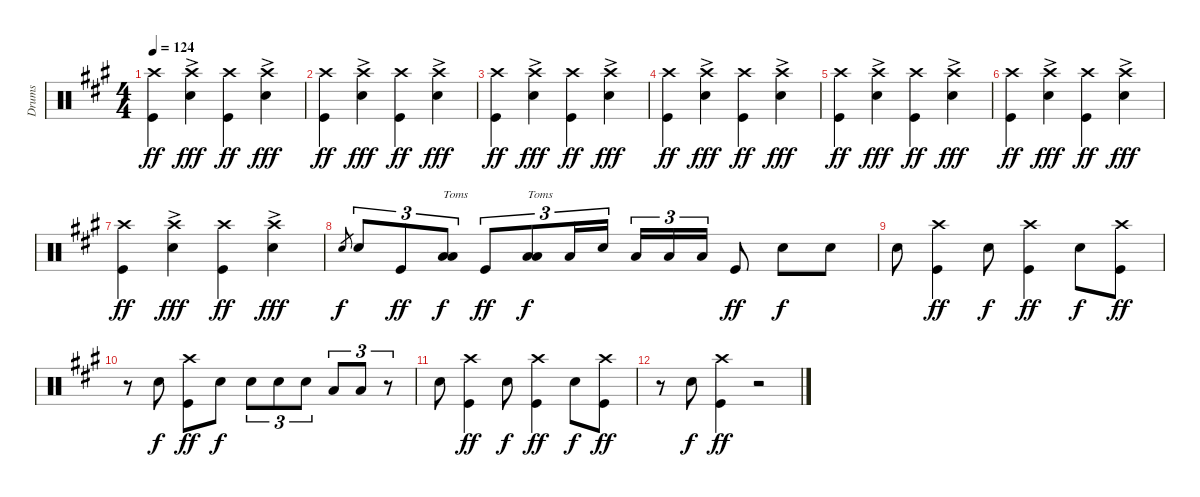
\track ("Drums" "Drums") {instrument percussion}
\staff {score}
\articulation defaults
\ts (4 4)
\tempo 124
\clef neutral
\ks a
("Crash high (hit)" "Kick (hit)").4{dy ff} ("Crash high (hit)"{ac} "Snare (hit) 2").4{dy fff} ("Crash high (hit)" "Kick (hit)").4{dy ff} ("Crash high (hit)"{ac} "Snare (hit) 2").4{dy fff} |
("Crash high (hit)" "Kick (hit)").4{dy ff} ("Crash high (hit)"{ac} "Snare (hit) 2").4{dy fff} ("Crash high (hit)" "Kick (hit)").4{dy ff} ("Crash high (hit)"{ac} "Snare (hit) 2").4{dy fff} |
("Crash high (hit)" "Kick (hit)").4{dy ff} ("Crash high (hit)"{ac} "Snare (hit) 2").4{dy fff} ("Crash high (hit)" "Kick (hit)").4{dy ff} ("Crash high (hit)"{ac} "Snare (hit) 2").4{dy fff} |
("Crash high (hit)" "Kick (hit)").4{dy ff} ("Crash high (hit)"{ac} "Snare (hit) 2").4{dy fff} ("Crash high (hit)" "Kick (hit)").4{dy ff} ("Crash high (hit)"{ac} "Snare (hit) 2").4{dy fff} |
("Crash high (hit)" "Kick (hit)").4{dy ff} ("Crash high (hit)"{ac} "Snare (hit) 2").4{dy fff} ("Crash high (hit)" "Kick (hit)").4{dy ff} ("Crash high (hit)"{ac} "Snare (hit) 2").4{dy fff} |
("Crash high (hit)" "Kick (hit)").4{dy ff} ("Crash high (hit)"{ac} "Snare (hit) 2").4{dy fff} ("Crash high (hit)" "Kick (hit)").4{dy ff} ("Crash high (hit)"{ac} "Snare (hit) 2").4{dy fff} |
("Crash high (hit)" "Kick (hit)").4{dy ff} ("Crash high (hit)"{ac} "Snare (hit) 2").4{dy fff} ("Crash high (hit)" "Kick (hit)").4{dy ff} ("Crash high (hit)"{ac} "Snare (hit) 2").4{dy fff} |
"Snare (hit) 2".8{gr dy f} "Snare (hit) 2".8{tu (3 2)} "Kick (hit)".8{tu (3 2) dy ff} ("Low Tom (hit)" "Low Floor Tom (hit)").8{tu (3 2) txt "Toms" dy f} "Kick (hit)".8{tu (3 2) dy ff} ("Low Tom (hit)" "Low Floor Tom (hit)").8{tu (3 2) txt "Toms" dy f} "Low Tom (hit)".16{tu (3 2)} "Snare (hit) 2".16{tu (3 2)} "Low Floor Tom (hit)".16{tu (3 2)} "Low Tom (hit)".16{tu (3 2)} "Low Floor Tom (hit)".16{tu (3 2)} "Kick (hit)".8{dy ff} "Snare (hit) 2".8{dy f} "Snare (hit) 2".8 |
"Snare (hit) 2".8 ("Crash high (hit)" "Kick (hit)").4{dy ff} "Snare (hit) 2".8{dy f} ("Crash high (hit)" "Kick (hit)").4{dy ff} "Snare (hit) 2".8{dy f} ("Crash high (hit)" "Kick (hit)").8{dy ff} |
r.8 "Snare (hit) 2".8{dy f} ("Crash high (hit)" "Kick (hit)").8{dy ff} "Snare (hit) 2".8{dy f} "Snare (hit) 2".8{tu (3 2)} "Snare (hit) 2".8{tu (3 2)} "Snare (hit) 2".8{tu (3 2)} "Low Tom (hit)".8{tu (3 2)} "Low Tom (hit)".8{tu (3 2)} r.8{tu (3 2)} |
"Snare (hit) 2".8 ("Crash high (hit)" "Kick (hit)").4{dy ff} "Snare (hit) 2".8{dy f} ("Crash high (hit)" "Kick (hit)").4{dy ff} "Snare (hit) 2".8{dy f} ("Crash high (hit)" "Kick (hit)").8{dy ff} |
r.8 "Snare (hit) 2".8{dy f} ("Crash high (hit)" "Kick (hit)").4{dy ff} r.2
